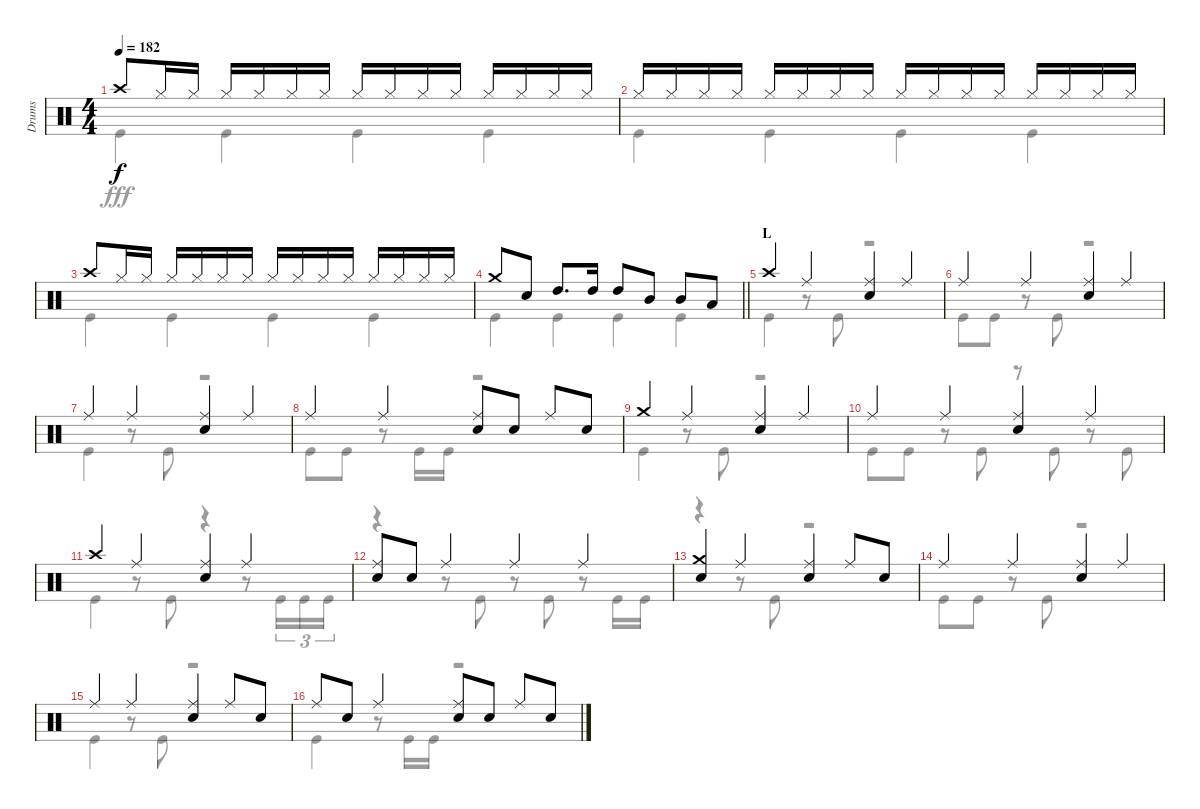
\track ("Drums" "Drums") {instrument percussion}
\staff {score}
\articulation defaults
\voice
\ts (4 4)
\tempo 182
\clef neutral
\ks c "Crash high (hit)".8{dy f} "Hi-Hat (closed)".16 "Hi-Hat (closed)".16 "Hi-Hat (closed)".16 "Hi-Hat (closed)".16 "Hi-Hat (closed)".16 "Hi-Hat (closed)".16 "Hi-Hat (closed)".16 "Hi-Hat (closed)".16 "Hi-Hat (closed)".16 "Hi-Hat (closed)".16 "Hi-Hat (closed)".16 "Hi-Hat (closed)".16 "Hi-Hat (closed)".16 "Hi-Hat (closed)".16
|
"Hi-Hat (closed)".16 "Hi-Hat (closed)".16 "Hi-Hat (closed)".16 "Hi-Hat (closed)".16 "Hi-Hat (closed)".16 "Hi-Hat (closed)".16 "Hi-Hat (closed)".16 "Hi-Hat (closed)".16 "Hi-Hat (closed)".16 "Hi-Hat (closed)".16 "Hi-Hat (closed)".16 "Hi-Hat (closed)".16 "Hi-Hat (closed)".16 "Hi-Hat (closed)".16 "Hi-Hat (closed)".16 "Hi-Hat (closed)".16 |
"Crash high (hit)".8 "Hi-Hat (closed)".16 "Hi-Hat (closed)".16 "Hi-Hat (closed)".16 "Hi-Hat (closed)".16 "Hi-Hat (closed)".16 "Hi-Hat (closed)".16 "Hi-Hat (closed)".16 "Hi-Hat (closed)".16 "Hi-Hat (closed)".16 "Hi-Hat (closed)".16 "Hi-Hat (closed)".16 "Hi-Hat (closed)".16 "Hi-Hat (closed)".16 "Hi-Hat (closed)".16 |
\barLineRight lightlight "Crash medium (hit)".8 "Snare (hit) 2".8 "High Tom (hit)".8{d} "High Tom (hit)".16 "High Tom (hit)".8 "Mid Tom (hit)".8 "Mid Tom (hit)".8 "Low Tom (hit)".8
|
\section ("" "L")
"Crash high (hit)".4 "Ride (middle)".4 ("Ride (middle)" "Snare (hit) 2").4 "Ride (middle)".4 |
"Ride (middle)".4 "Ride (middle)".4 ("Ride (middle)" "Snare (hit) 2").4 "Ride (middle)".4 |
"Ride (middle)".4 "Ride (middle)".4 ("Ride (middle)" "Snare (hit) 2").4 "Ride (middle)".4 |
"Ride (middle)".4 "Ride (middle)".4 ("Ride (middle)" "Snare (hit) 2").8 "Snare (hit) 2".8 "Ride (middle)".8 "Snare (hit) 2".8 |
"Crash medium (hit)".4 "Ride (middle)".4 ("Ride (middle)" "Snare (hit) 2").4 "Ride (middle)".4 |
"Ride (middle)".4 "Ride (middle)".4 ("Ride (middle)" "Snare (hit) 2").4 "Ride (middle)".4 |
"Crash high (hit)".4 "Ride (middle)".4 ("Ride (middle)" "Snare (hit) 2").4 "Ride (middle)".4 |
("Ride (middle)" "Snare (hit) 2").8 "Snare (hit) 2".8 "Ride (middle)".4 "Ride (middle)".4 "Ride (middle)".4 |
("Crash medium (hit)" "Snare (hit) 2").4 "Ride (middle)".4 ("Ride (middle)" "Snare (hit) 2").4 "Ride (middle)".8 "Snare (hit) 2".8 |
"Ride (middle)".4 "Ride (middle)".4 ("Ride (middle)" "Snare (hit) 2").4 "Ride (middle)".4 |
"Ride (middle)".4 "Ride (middle)".4 ("Ride (middle)" "Snare (hit) 2").4 "Ride (middle)".8 "Snare (hit) 2".8 |
"Ride (middle)".8 "Snare (hit) 2".8 "Ride (middle)".4 ("Ride (middle)" "Snare (hit) 2").8 "Snare (hit) 2".8 "Ride (middle)".8 "Snare (hit) 2".8
\voice
\clef neutral
\ottava regular
\simile none
\ks c "Kick (hit)".4{dy fff} "Kick (hit)".4 "Kick (hit)".4 "Kick (hit)".4
|
"Kick (hit)".4 "Kick (hit)".4 "Kick (hit)".4 "Kick (hit)".4 |
"Kick (hit)".4 "Kick (hit)".4 "Kick (hit)".4 "Kick (hit)".4 |
\barLineRight lightlight "Kick (hit)".4 "Kick (hit)".4 "Kick (hit)".4 "Kick (hit)".4
|
"Kick (hit)".4 r.8 "Kick (hit)".8 r.2 |
"Kick (hit)".8 "Kick (hit)".8 r.8 "Kick (hit)".8 r.2 |
"Kick (hit)".4 r.8 "Kick (hit)".8 r.2 |
"Kick (hit)".8 "Kick (hit)".8 r.8 "Kick (hit)".16 "Kick (hit)".16 r.2 |
"Kick (hit)".4 r.8 "Kick (hit)".8 r.2 |
"Kick (hit)".8 "Kick (hit)".8 r.8 "Kick (hit)".8 r.8 "Kick (hit)".8 r.8 "Kick (hit)".8 |
"Kick (hit)".4 r.8 "Kick (hit)".8 r.4 r.8 "Kick (hit)".16{tu (3 2)} "Kick (hit)".16{tu (3 2)} "Kick (hit)".16{tu (3 2)} |
r.4 r.8 "Kick (hit)".8 r.8 "Kick (hit)".8 r.8 "Kick (hit)".16 "Kick (hit)".16 |
r.4 r.8 "Kick (hit)".8 r.2 |
"Kick (hit)".8 "Kick (hit)".8 r.8 "Kick (hit)".8 r.2 |
"Kick (hit)".4 r.8 "Kick (hit)".8 r.2 |
"Kick (hit)".4 r.8 "Kick (hit)".16 "Kick (hit)".16 r.2
